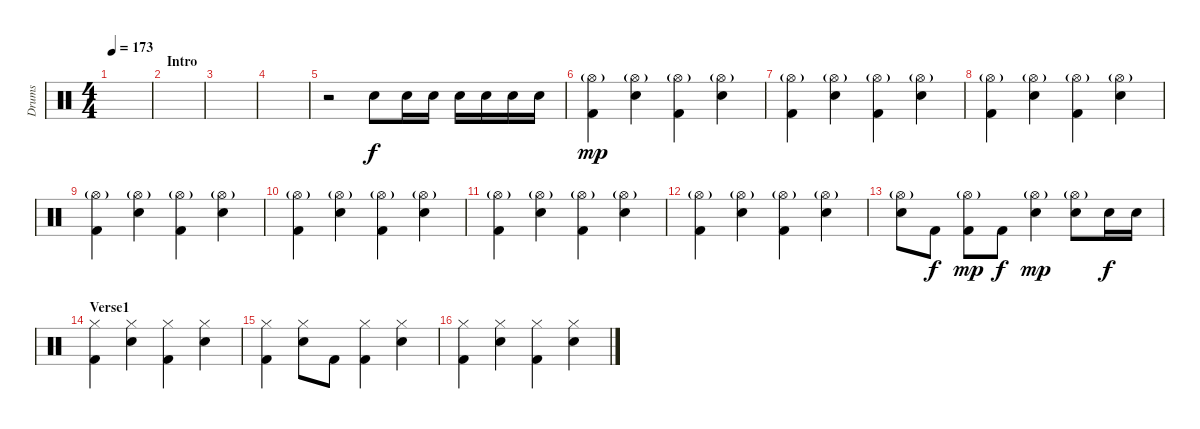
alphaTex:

\track ("Drums" "Drums") {instrument percussion}
\staff {score}
\articulation defaults
\ts (4 4)
\tempo 173
\clef neutral
\ks c
|
\section ("" "Intro")
|
|
|
r.2 "Snare (hit) 2".8 "Snare (hit) 2".16 "Snare (hit) 2".16 "Snare (hit) 2".16 "Snare (hit) 2".16 "Snare (hit) 2".16 "Snare (hit) 2".16 |
("Hi-Hat (open)"{g} "Kick (hit) 2").4{dy mp} ("Hi-Hat (open)"{g} "Snare (hit) 2").4 ("Hi-Hat (open)"{g} "Kick (hit) 2").4 ("Hi-Hat (open)"{g} "Snare (hit) 2").4 |
("Hi-Hat (open)"{g} "Kick (hit) 2").4 ("Hi-Hat (open)"{g} "Snare (hit) 2").4 ("Hi-Hat (open)"{g} "Kick (hit) 2").4 ("Hi-Hat (open)"{g} "Snare (hit) 2").4 |
("Hi-Hat (open)"{g} "Kick (hit) 2").4 ("Hi-Hat (open)"{g} "Snare (hit) 2").4 ("Hi-Hat (open)"{g} "Kick (hit) 2").4 ("Hi-Hat (open)"{g} "Snare (hit) 2").4 |
("Hi-Hat (open)"{g} "Kick (hit) 2").4 ("Hi-Hat (open)"{g} "Snare (hit) 2").4 ("Hi-Hat (open)"{g} "Kick (hit) 2").4 ("Hi-Hat (open)"{g} "Snare (hit) 2").4 |
("Hi-Hat (open)"{g} "Kick (hit) 2").4 ("Hi-Hat (open)"{g} "Snare (hit) 2").4 ("Hi-Hat (open)"{g} "Kick (hit) 2").4 ("Hi-Hat (open)"{g} "Snare (hit) 2").4 |
("Hi-Hat (open)"{g} "Kick (hit) 2").4 ("Hi-Hat (open)"{g} "Snare (hit) 2").4 ("Hi-Hat (open)"{g} "Kick (hit) 2").4 ("Hi-Hat (open)"{g} "Snare (hit) 2").4 |
("Hi-Hat (open)"{g} "Kick (hit) 2").4 ("Hi-Hat (open)"{g} "Snare (hit) 2").4 ("Hi-Hat (open)"{g} "Kick (hit) 2").4 ("Hi-Hat (open)"{g} "Snare (hit) 2").4 |
("Hi-Hat (open)"{g} "Snare (hit) 2").8 "Kick (hit) 2".8{dy f} ("Hi-Hat (open)"{g} "Kick (hit) 2").8{dy mp} "Kick (hit) 2".8{dy f} ("Hi-Hat (open)"{g} "Snare (hit) 2").4{dy mp} ("Hi-Hat (open)"{g} "Snare (hit) 2").8 "Snare (hit) 2".16{dy f} "Snare (hit) 2".16 |
\section ("" "Verse1")
("Hi-Hat (closed)" "Kick (hit) 2").4 ("Hi-Hat (closed)" "Snare (hit) 2").4 ("Hi-Hat (closed)" "Kick (hit) 2").4 ("Hi-Hat (closed)" "Snare (hit) 2").4 |
("Hi-Hat (closed)" "Kick (hit) 2").4 ("Hi-Hat (closed)" "Snare (hit) 2").8 "Kick (hit) 2".8 ("Hi-Hat (closed)" "Kick (hit) 2").4 ("Hi-Hat (closed)" "Snare (hit) 2").4 |
("Hi-Hat (closed)" "Kick (hit) 2").4 ("Hi-Hat (closed)" "Snare (hit) 2").4 ("Hi-Hat (closed)" "Kick (hit) 2").4 ("Hi-Hat (closed)" "Snare (hit) 2").4
